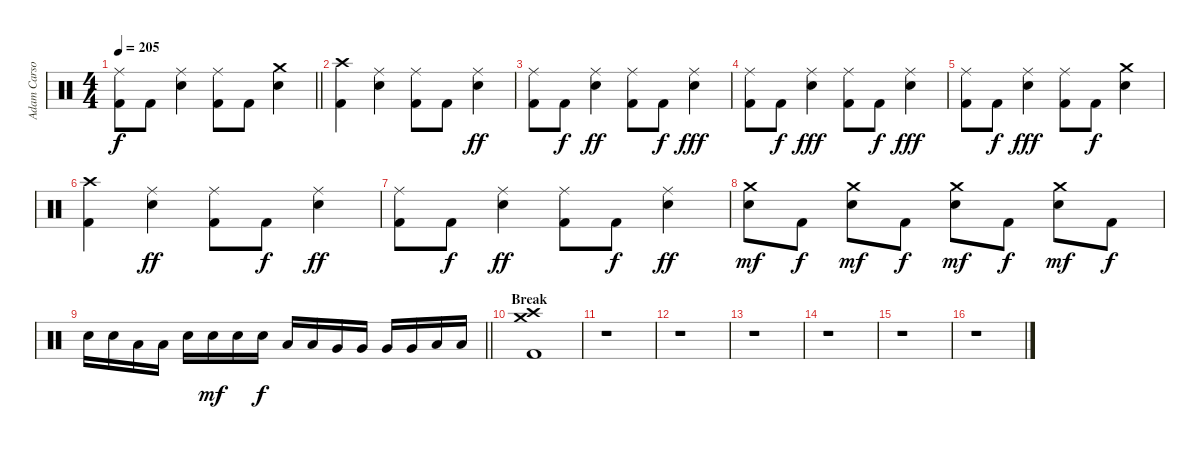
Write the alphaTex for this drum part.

\track ("Adam Carson" "Adam Carso") {instrument percussion}
\staff {score}
\articulation defaults
\ts (4 4)
\tempo 205
\clef neutral
\barLineRight lightlight
\ks aminor
("Ride (middle)" "Kick (hit) 2").8{dy f} "Kick (hit) 2".8 ("Ride (middle)" "Snare (hit) 2").4 ("Ride (middle)" "Kick (hit) 2").8 "Kick (hit) 2".8 ("Crash medium (hit)" "Snare (hit) 2").4 |
("Crash high (hit)" "Kick (hit) 2").4 ("Ride (middle)" "Snare (hit) 2").4 ("Ride (middle)" "Kick (hit) 2").8 "Kick (hit) 2".8 ("Ride (middle)" "Snare (hit) 2").4{dy ff} |
("Ride (middle)" "Kick (hit) 2").8 "Kick (hit) 2".8{dy f} ("Ride (middle)" "Snare (hit) 2").4{dy ff} ("Ride (middle)" "Kick (hit) 2").8 "Kick (hit) 2".8{dy f} ("Ride (middle)" "Snare (hit) 2").4{dy fff} |
("Ride (middle)" "Kick (hit) 2").8 "Kick (hit) 2".8{dy f} ("Ride (middle)" "Snare (hit) 2").4{dy fff} ("Ride (middle)" "Kick (hit) 2").8 "Kick (hit) 2".8{dy f} ("Ride (middle)" "Snare (hit) 2").4{dy fff} |
("Ride (middle)" "Kick (hit) 2").8 "Kick (hit) 2".8{dy f} ("Ride (middle)" "Snare (hit) 2").4{dy fff} ("Ride (middle)" "Kick (hit) 2").8 "Kick (hit) 2".8{dy f} ("Crash medium (hit)" "Snare (hit) 2").4 |
("Crash high (hit)" "Kick (hit) 2").4 ("Ride (middle)" "Snare (hit) 2").4{dy ff} ("Ride (middle)" "Kick (hit) 2").8 "Kick (hit) 2".8{dy f} ("Ride (middle)" "Snare (hit) 2").4{dy ff} |
("Ride (middle)" "Kick (hit) 2").8 "Kick (hit) 2".8{dy f} ("Ride (middle)" "Snare (hit) 2").4{dy ff} ("Ride (middle)" "Kick (hit) 2").8 "Kick (hit) 2".8{dy f} ("Ride (middle)" "Snare (hit) 2").4{dy ff} |
("Crash medium (hit)" "Snare (hit) 2").8{dy mf} "Kick (hit) 2".8{dy f} ("Crash medium (hit)" "Snare (hit) 2").8{dy mf} "Kick (hit) 2".8{dy f} ("Crash medium (hit)" "Snare (hit) 2").8{dy mf} "Kick (hit) 2".8{dy f} ("Crash medium (hit)" "Snare (hit) 2").8{dy mf} "Kick (hit) 2".8{dy f} |
\barLineRight lightlight "Snare (hit) 2".16 "Snare (hit) 2".16 "Low Tom (hit)".16 "Low Tom (hit)".16 "Snare (hit) 2".16 "Snare (hit) 2".16{dy mf} "Snare (hit) 2".16 "Snare (hit) 2".16{dy f} "Low Tom (hit)".16 "Low Tom (hit)".16 "Very Low Tom (hit)".16 "Very Low Tom (hit)".16 "Very Low Tom (hit)".16 "Very Low Tom (hit)".16 "Low Floor Tom (hit)".16 "Low Floor Tom (hit)".16
|
\section ("" "Break")
("Crash medium (hit)" "Crash high (hit)" "Kick (hit) 2").1 |
r.1 |
r.1 |
r.1 |
r.1 |
r.1 |
r.1
